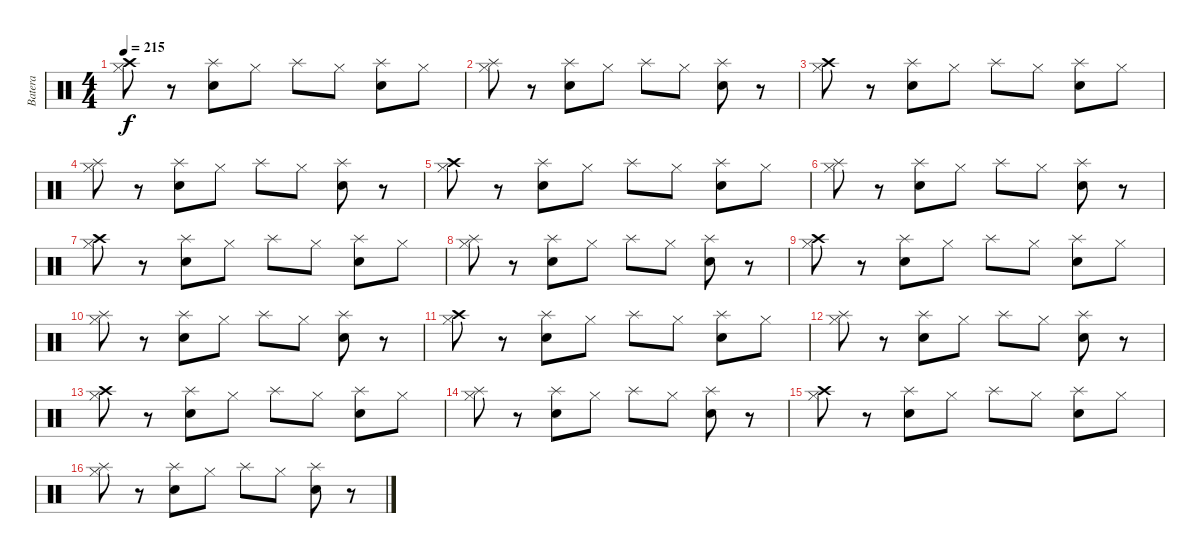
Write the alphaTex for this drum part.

\track ("Batera" "Batera") {instrument percussion}
\staff {score}
\articulation defaults
\ts (4 4)
\tempo 215
\clef neutral
\ks c
("Crash high (hit)" "Hi-Hat (closed)").8{dy f} r.8 ("Splash (hit)" "Electric Snare (hit)").8 "Hi-Hat (closed)".8 "Splash (hit)".8 "Hi-Hat (closed)".8 ("Splash (hit)" "Electric Snare (hit)").8 "Hi-Hat (closed)".8 |
("Splash (hit)" "Hi-Hat (closed)").8 r.8 ("Splash (hit)" "Electric Snare (hit)").8 "Hi-Hat (closed)".8 "Splash (hit)".8 "Hi-Hat (closed)".8 ("Splash (hit)" "Electric Snare (hit)").8 r.8 |
("Crash high (hit)" "Hi-Hat (closed)").8 r.8 ("Splash (hit)" "Electric Snare (hit)").8 "Hi-Hat (closed)".8 "Splash (hit)".8 "Hi-Hat (closed)".8 ("Splash (hit)" "Electric Snare (hit)").8 "Hi-Hat (closed)".8 |
("Splash (hit)" "Hi-Hat (closed)").8 r.8 ("Splash (hit)" "Electric Snare (hit)").8 "Hi-Hat (closed)".8 "Splash (hit)".8 "Hi-Hat (closed)".8 ("Splash (hit)" "Electric Snare (hit)").8 r.8 |
("Crash high (hit)" "Hi-Hat (closed)").8 r.8 ("Splash (hit)" "Electric Snare (hit)").8 "Hi-Hat (closed)".8 "Splash (hit)".8 "Hi-Hat (closed)".8 ("Splash (hit)" "Electric Snare (hit)").8 "Hi-Hat (closed)".8 |
("Splash (hit)" "Hi-Hat (closed)").8 r.8 ("Splash (hit)" "Electric Snare (hit)").8 "Hi-Hat (closed)".8 "Splash (hit)".8 "Hi-Hat (closed)".8 ("Splash (hit)" "Electric Snare (hit)").8 r.8 |
("Crash high (hit)" "Hi-Hat (closed)").8 r.8 ("Splash (hit)" "Electric Snare (hit)").8 "Hi-Hat (closed)".8 "Splash (hit)".8 "Hi-Hat (closed)".8 ("Splash (hit)" "Electric Snare (hit)").8 "Hi-Hat (closed)".8 |
("Splash (hit)" "Hi-Hat (closed)").8 r.8 ("Splash (hit)" "Electric Snare (hit)").8 "Hi-Hat (closed)".8 "Splash (hit)".8 "Hi-Hat (closed)".8 ("Splash (hit)" "Electric Snare (hit)").8 r.8 |
("Crash high (hit)" "Hi-Hat (closed)").8 r.8 ("Splash (hit)" "Electric Snare (hit)").8 "Hi-Hat (closed)".8 "Splash (hit)".8 "Hi-Hat (closed)".8 ("Splash (hit)" "Electric Snare (hit)").8 "Hi-Hat (closed)".8 |
("Splash (hit)" "Hi-Hat (closed)").8 r.8 ("Splash (hit)" "Electric Snare (hit)").8 "Hi-Hat (closed)".8 "Splash (hit)".8 "Hi-Hat (closed)".8 ("Splash (hit)" "Electric Snare (hit)").8 r.8 |
("Crash high (hit)" "Hi-Hat (closed)").8 r.8 ("Splash (hit)" "Electric Snare (hit)").8 "Hi-Hat (closed)".8 "Splash (hit)".8 "Hi-Hat (closed)".8 ("Splash (hit)" "Electric Snare (hit)").8 "Hi-Hat (closed)".8 |
("Splash (hit)" "Hi-Hat (closed)").8 r.8 ("Splash (hit)" "Electric Snare (hit)").8 "Hi-Hat (closed)".8 "Splash (hit)".8 "Hi-Hat (closed)".8 ("Splash (hit)" "Electric Snare (hit)").8 r.8 |
("Crash high (hit)" "Hi-Hat (closed)").8 r.8 ("Splash (hit)" "Electric Snare (hit)").8 "Hi-Hat (closed)".8 "Splash (hit)".8 "Hi-Hat (closed)".8 ("Splash (hit)" "Electric Snare (hit)").8 "Hi-Hat (closed)".8 |
("Splash (hit)" "Hi-Hat (closed)").8 r.8 ("Splash (hit)" "Electric Snare (hit)").8 "Hi-Hat (closed)".8 "Splash (hit)".8 "Hi-Hat (closed)".8 ("Splash (hit)" "Electric Snare (hit)").8 r.8 |
("Crash high (hit)" "Hi-Hat (closed)").8 r.8 ("Splash (hit)" "Electric Snare (hit)").8 "Hi-Hat (closed)".8 "Splash (hit)".8 "Hi-Hat (closed)".8 ("Splash (hit)" "Electric Snare (hit)").8 "Hi-Hat (closed)".8 |
("Splash (hit)" "Hi-Hat (closed)").8 r.8 ("Splash (hit)" "Electric Snare (hit)").8 "Hi-Hat (closed)".8 "Splash (hit)".8 "Hi-Hat (closed)".8 ("Splash (hit)" "Electric Snare (hit)").8 r.8
